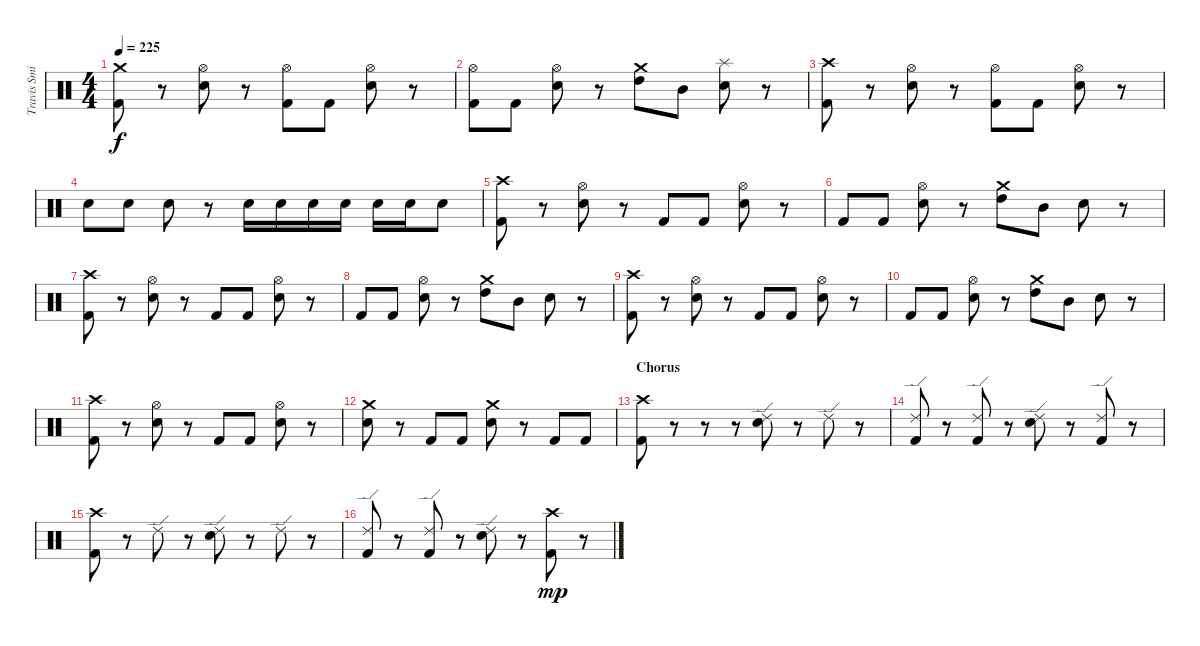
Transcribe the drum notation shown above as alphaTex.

\track ("Travis Smith" "Travis Smi") {instrument percussion}
\staff {score}
\articulation defaults
\ts (4 4)
\tempo 225
\clef neutral
\ks c
("Crash medium (hit)" "Kick (hit) 2").8{dy f} r.8 ("Hi-Hat (open)" "Electric Snare (hit)").8 r.8 ("Hi-Hat (open)" "Kick (hit) 2").8 "Kick (hit) 2".8 ("Hi-Hat (open)" "Electric Snare (hit)").8 r.8 |
("Hi-Hat (open)" "Kick (hit) 2").8 "Kick (hit) 2".8 ("Hi-Hat (open)" "Electric Snare (hit)").8 r.8 ("Crash medium (hit)" "High Tom (hit)").8 "Mid Tom (hit)".8 ("Splash (hit)" "Electric Snare (hit)").8 r.8 |
("Crash high (hit)" "Kick (hit) 2").8 r.8 ("Hi-Hat (open)" "Electric Snare (hit)").8 r.8 ("Hi-Hat (open)" "Kick (hit) 2").8 "Kick (hit) 2".8 ("Hi-Hat (open)" "Electric Snare (hit)").8 r.8 |
"Electric Snare (hit)".8 "Electric Snare (hit)".8 "Electric Snare (hit)".8 r.8 "Electric Snare (hit)".16 "Electric Snare (hit)".16 "Electric Snare (hit)".16 "Electric Snare (hit)".16 "Electric Snare (hit)".16 "Electric Snare (hit)".16 "Electric Snare (hit)".8 |
("Crash high (hit)" "Kick (hit) 2").8 r.8 ("Hi-Hat (open)" "Electric Snare (hit)").8 r.8 "Kick (hit) 2".8 "Kick (hit) 2".8 ("Hi-Hat (open)" "Electric Snare (hit)").8 r.8 |
"Kick (hit) 2".8 "Kick (hit) 2".8 ("Hi-Hat (open)" "Electric Snare (hit)").8 r.8 ("Crash medium (hit)" "High Tom (hit)").8 "Mid Tom (hit)".8 "Electric Snare (hit)".8 r.8 |
("Crash high (hit)" "Kick (hit) 2").8 r.8 ("Hi-Hat (open)" "Electric Snare (hit)").8 r.8 "Kick (hit) 2".8 "Kick (hit) 2".8 ("Hi-Hat (open)" "Electric Snare (hit)").8 r.8 |
"Kick (hit) 2".8 "Kick (hit) 2".8 ("Hi-Hat (open)" "Electric Snare (hit)").8 r.8 ("Crash medium (hit)" "High Tom (hit)").8 "Mid Tom (hit)".8 "Electric Snare (hit)".8 r.8 |
("Crash high (hit)" "Kick (hit) 2").8 r.8 ("Hi-Hat (open)" "Electric Snare (hit)").8 r.8 "Kick (hit) 2".8 "Kick (hit) 2".8 ("Hi-Hat (open)" "Electric Snare (hit)").8 r.8 |
"Kick (hit) 2".8 "Kick (hit) 2".8 ("Hi-Hat (open)" "Electric Snare (hit)").8 r.8 ("Crash medium (hit)" "High Tom (hit)").8 "Mid Tom (hit)".8 "Electric Snare (hit)".8 r.8 |
("Crash high (hit)" "Kick (hit) 2").8 r.8 ("Hi-Hat (open)" "Electric Snare (hit)").8 r.8 "Kick (hit) 2".8 "Kick (hit) 2".8 ("Hi-Hat (open)" "Electric Snare (hit)").8 r.8 |
("Crash medium (hit)" "Electric Snare (hit)").8 r.8 "Kick (hit) 2".8 "Kick (hit) 2".8 ("Crash medium (hit)" "Electric Snare (hit)").8 r.8 "Kick (hit) 2".8 "Kick (hit) 2".8 |
\section ("" "Chorus")
("Crash high (hit)" "Kick (hit) 2").8 r.8 r.8 r.8 ("Ride (edge) 2" "Electric Snare (hit)").8 r.8 "Ride (edge) 2".8 r.8 |
("Ride (edge) 2" "Kick (hit) 2").8 r.8 ("Ride (edge) 2" "Kick (hit) 2").8 r.8 ("Ride (edge) 2" "Electric Snare (hit)").8 r.8 ("Ride (edge) 2" "Kick (hit) 2").8 r.8 |
("Crash high (hit)" "Kick (hit) 2").8 r.8 "Ride (edge) 2".8 r.8 ("Ride (edge) 2" "Electric Snare (hit)").8 r.8 "Ride (edge) 2".8 r.8 |
("Ride (edge) 2" "Kick (hit) 2").8 r.8 ("Ride (edge) 2" "Kick (hit) 2").8 r.8 ("Ride (edge) 2" "Electric Snare (hit)").8 r.8 ("Crash high (hit)" "Kick (hit) 2").8{dy mp} r.8
